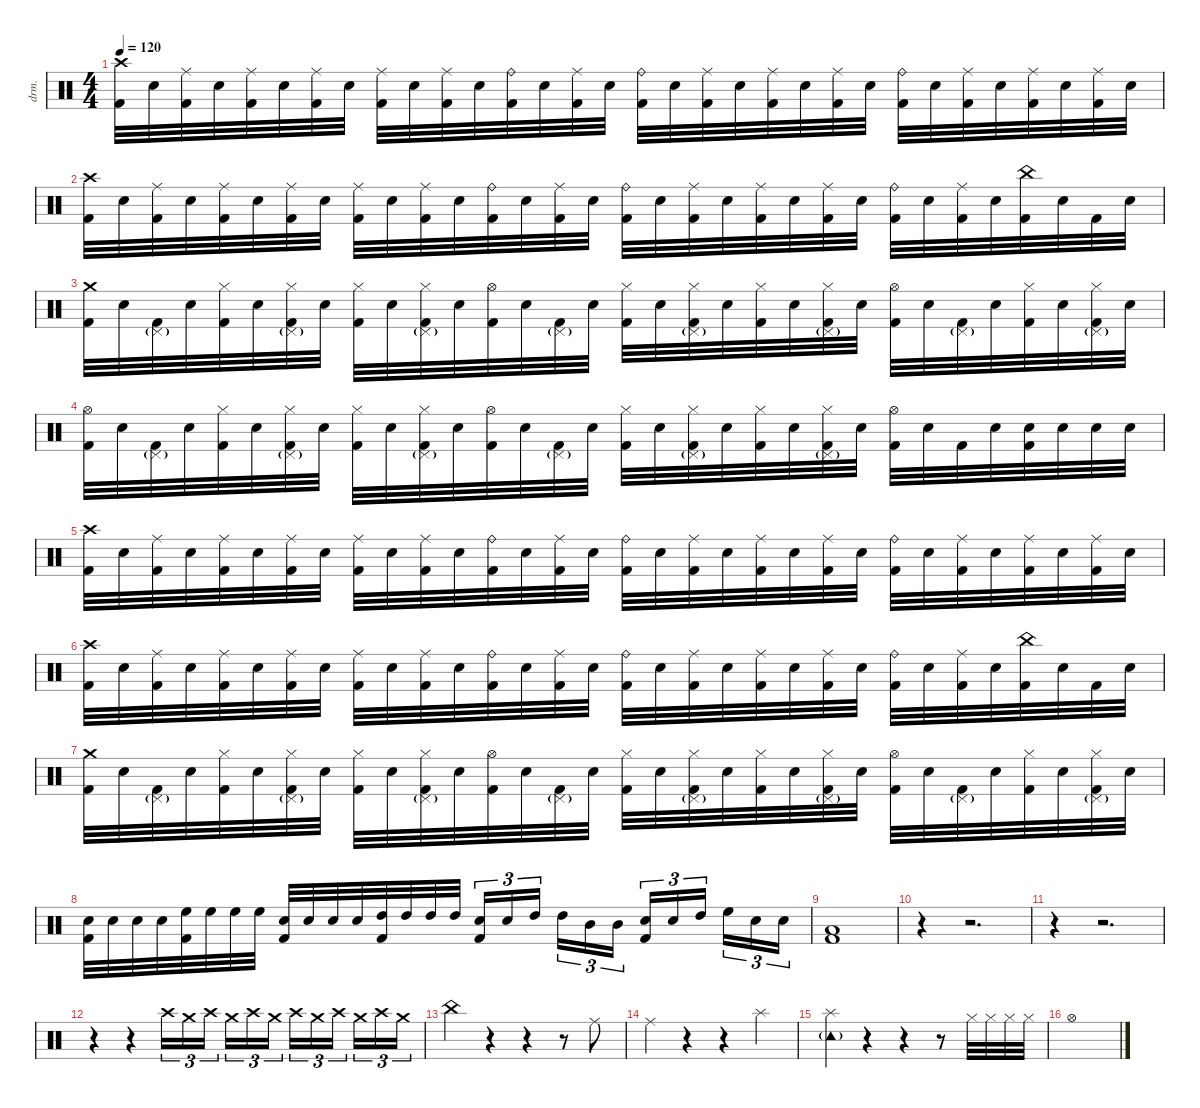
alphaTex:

\defaultSystemsLayout 4
\hideDynamics
\bracketExtendMode nobrackets
\otherSystemsTrackNameOrientation horizontal
\track ("Percussion" "drm.") {instrument percussion}
\staff {score}
\articulation defaults
\ts (4 4)
\tempo 120
\clef neutral
\ks c
("Kick (hit) 2" "Crash high (hit)").32{dy fff beam Down} "Snare (hit) 2".32{beam Down} ("Kick (hit) 2" "Ride (middle)").32{beam Down} "Snare (hit) 2".32{beam Down} ("Kick (hit) 2" "Ride (middle)").32{beam Down} "Snare (hit) 2".32{beam Down} ("Kick (hit) 2" "Ride (middle)").32{beam Down} "Snare (hit) 2".32{beam Down} ("Kick (hit) 2" "Ride (middle)").32{beam Down} "Snare (hit) 2".32{beam Down} ("Kick (hit) 2" "Ride (middle)").32{beam Down} "Snare (hit) 2".32{beam Down} ("Kick (hit) 2" "Ride (bell)").32{beam Down} "Snare (hit) 2".32{beam Down} ("Kick (hit) 2" "Ride (middle)").32{beam Down} "Snare (hit) 2".32{beam Down} ("Kick (hit) 2" "Ride (bell)").32{beam Down} "Snare (hit) 2".32{beam Down} ("Kick (hit) 2" "Ride (middle)").32{beam Down} "Snare (hit) 2".32{beam Down} ("Kick (hit) 2" "Ride (middle)").32{beam Down} "Snare (hit) 2".32{beam Down} ("Kick (hit) 2" "Ride (middle)").32{beam Down} "Snare (hit) 2".32{beam Down} ("Kick (hit) 2" "Ride (bell)").32{beam Down} "Snare (hit) 2".32{beam Down} ("Kick (hit) 2" "Ride (middle)").32{beam Down} "Snare (hit) 2".32{beam Down} ("Kick (hit) 2" "Ride (middle)").32{beam Down} "Snare (hit) 2".32{beam Down} ("Kick (hit) 2" "Ride (middle)").32{beam Down} "Snare (hit) 2".32{beam Down} |
("Kick (hit) 2" "Crash high (hit)").32{beam Down} "Snare (hit) 2".32{beam Down} ("Kick (hit) 2" "Ride (middle)").32{beam Down} "Snare (hit) 2".32{beam Down} ("Kick (hit) 2" "Ride (middle)").32{beam Down} "Snare (hit) 2".32{beam Down} ("Kick (hit) 2" "Ride (middle)").32{beam Down} "Snare (hit) 2".32{beam Down} ("Kick (hit) 2" "Ride (middle)").32{beam Down} "Snare (hit) 2".32{beam Down} ("Kick (hit) 2" "Ride (middle)").32{beam Down} "Snare (hit) 2".32{beam Down} ("Kick (hit) 2" "Ride (bell)").32{beam Down} "Snare (hit) 2".32{beam Down} ("Kick (hit) 2" "Ride (middle)").32{beam Down} "Snare (hit) 2".32{beam Down} ("Kick (hit) 2" "Ride (bell)").32{beam Down} "Snare (hit) 2".32{beam Down} ("Kick (hit) 2" "Ride (middle)").32{beam Down} "Snare (hit) 2".32{beam Down} ("Kick (hit) 2" "Ride (middle)").32{beam Down} "Snare (hit) 2".32{beam Down} ("Kick (hit) 2" "Ride (middle)").32{beam Down} "Snare (hit) 2".32{beam Down} ("Kick (hit) 2" "Ride (bell)").32{beam Down} "Snare (hit) 2".32{beam Down} ("Kick (hit) 2" "Ride (middle)").32{beam Down} "Snare (hit) 2".32{beam Down} ("Kick (hit) 2" "China (hit)").32{beam Down} "Snare (hit) 2".32{beam Down} "Kick (hit) 2".32{beam Down} "Snare (hit) 2".32{beam Down} |
("Kick (hit) 2" "Crash medium (hit)").32{beam Down} "Snare (hit) 2".32{beam Down} ("Kick (hit) 2" "Pedal Hi-Hat (hit)"{g}).32{beam Down} "Snare (hit) 2".32{beam Down} ("Kick (hit) 2" "Hi-Hat (closed)").32{beam Down} "Snare (hit) 2".32{beam Down} ("Kick (hit) 2" "Pedal Hi-Hat (hit)"{g} "Hi-Hat (closed)").32{beam Down} "Snare (hit) 2".32{beam Down} ("Kick (hit) 2" "Hi-Hat (closed)").32{beam Down} "Snare (hit) 2".32{beam Down} ("Kick (hit) 2" "Pedal Hi-Hat (hit)"{g} "Hi-Hat (closed)").32{beam Down} "Snare (hit) 2".32{beam Down} ("Kick (hit) 2" "Hi-Hat (open)").32{beam Down} "Snare (hit) 2".32{beam Down} ("Kick (hit) 2" "Pedal Hi-Hat (hit)"{g}).32{beam Down} "Snare (hit) 2".32{beam Down} ("Kick (hit) 2" "Hi-Hat (closed)").32{beam Down} "Snare (hit) 2".32{beam Down} ("Kick (hit) 2" "Pedal Hi-Hat (hit)"{g} "Hi-Hat (closed)").32{beam Down} "Snare (hit) 2".32{beam Down} ("Kick (hit) 2" "Hi-Hat (closed)").32{beam Down} "Snare (hit) 2".32{beam Down} ("Kick (hit) 2" "Pedal Hi-Hat (hit)"{g} "Hi-Hat (closed)").32{beam Down} "Snare (hit) 2".32{beam Down} ("Kick (hit) 2" "Hi-Hat (open)").32{beam Down} "Snare (hit) 2".32{beam Down} ("Kick (hit) 2" "Pedal Hi-Hat (hit)"{g}).32{beam Down} "Snare (hit) 2".32{beam Down} ("Kick (hit) 2" "Hi-Hat (closed)").32{beam Down} "Snare (hit) 2".32{beam Down} ("Kick (hit) 2" "Pedal Hi-Hat (hit)"{g} "Hi-Hat (closed)").32{beam Down} "Snare (hit) 2".32{beam Down} |
("Kick (hit) 2" "Hi-Hat (open)").32{beam Down} "Snare (hit) 2".32{beam Down} ("Kick (hit) 2" "Pedal Hi-Hat (hit)"{g}).32{beam Down} "Snare (hit) 2".32{beam Down} ("Kick (hit) 2" "Hi-Hat (closed)").32{beam Down} "Snare (hit) 2".32{beam Down} ("Kick (hit) 2" "Pedal Hi-Hat (hit)"{g} "Hi-Hat (closed)").32{beam Down} "Snare (hit) 2".32{beam Down} ("Kick (hit) 2" "Hi-Hat (closed)").32{beam Down} "Snare (hit) 2".32{beam Down} ("Kick (hit) 2" "Pedal Hi-Hat (hit)"{g} "Hi-Hat (closed)").32{beam Down} "Snare (hit) 2".32{beam Down} ("Kick (hit) 2" "Hi-Hat (open)").32{beam Down} "Snare (hit) 2".32{beam Down} ("Kick (hit) 2" "Pedal Hi-Hat (hit)"{g}).32{beam Down} "Snare (hit) 2".32{beam Down} ("Kick (hit) 2" "Hi-Hat (closed)").32{beam Down} "Snare (hit) 2".32{beam Down} ("Kick (hit) 2" "Pedal Hi-Hat (hit)"{g} "Hi-Hat (closed)").32{beam Down} "Snare (hit) 2".32{beam Down} ("Kick (hit) 2" "Hi-Hat (closed)").32{beam Down} "Snare (hit) 2".32{beam Down} ("Kick (hit) 2" "Pedal Hi-Hat (hit)"{g} "Hi-Hat (closed)").32{beam Down} "Snare (hit) 2".32{beam Down} ("Kick (hit) 2" "Hi-Hat (open)").32{beam Down} "Snare (hit) 2".32{beam Down} "Kick (hit) 2".32{beam Down} "Snare (hit) 2".32{beam Down} ("Kick (hit) 2" "Snare (hit) 2").32{beam Down} "Snare (hit) 2".32{beam Down} "Snare (hit) 2".32{beam Down} "Snare (hit) 2".32{beam Down} |
("Kick (hit) 2" "Crash high (hit)").32{beam Down} "Snare (hit) 2".32{beam Down} ("Kick (hit) 2" "Ride (middle)").32{beam Down} "Snare (hit) 2".32{beam Down} ("Kick (hit) 2" "Ride (middle)").32{beam Down} "Snare (hit) 2".32{beam Down} ("Kick (hit) 2" "Ride (middle)").32{beam Down} "Snare (hit) 2".32{beam Down} ("Kick (hit) 2" "Ride (middle)").32{beam Down} "Snare (hit) 2".32{beam Down} ("Kick (hit) 2" "Ride (middle)").32{beam Down} "Snare (hit) 2".32{beam Down} ("Kick (hit) 2" "Ride (bell)").32{beam Down} "Snare (hit) 2".32{beam Down} ("Kick (hit) 2" "Ride (middle)").32{beam Down} "Snare (hit) 2".32{beam Down} ("Kick (hit) 2" "Ride (bell)").32{beam Down} "Snare (hit) 2".32{beam Down} ("Kick (hit) 2" "Ride (middle)").32{beam Down} "Snare (hit) 2".32{beam Down} ("Kick (hit) 2" "Ride (middle)").32{beam Down} "Snare (hit) 2".32{beam Down} ("Kick (hit) 2" "Ride (middle)").32{beam Down} "Snare (hit) 2".32{beam Down} ("Kick (hit) 2" "Ride (bell)").32{beam Down} "Snare (hit) 2".32{beam Down} ("Kick (hit) 2" "Ride (middle)").32{beam Down} "Snare (hit) 2".32{beam Down} ("Kick (hit) 2" "Ride (middle)").32{beam Down} "Snare (hit) 2".32{beam Down} ("Kick (hit) 2" "Ride (middle)").32{beam Down} "Snare (hit) 2".32{beam Down} |
("Kick (hit) 2" "Crash high (hit)").32{beam Down} "Snare (hit) 2".32{beam Down} ("Kick (hit) 2" "Ride (middle)").32{beam Down} "Snare (hit) 2".32{beam Down} ("Kick (hit) 2" "Ride (middle)").32{beam Down} "Snare (hit) 2".32{beam Down} ("Kick (hit) 2" "Ride (middle)").32{beam Down} "Snare (hit) 2".32{beam Down} ("Kick (hit) 2" "Ride (middle)").32{beam Down} "Snare (hit) 2".32{beam Down} ("Kick (hit) 2" "Ride (middle)").32{beam Down} "Snare (hit) 2".32{beam Down} ("Kick (hit) 2" "Ride (bell)").32{beam Down} "Snare (hit) 2".32{beam Down} ("Kick (hit) 2" "Ride (middle)").32{beam Down} "Snare (hit) 2".32{beam Down} ("Kick (hit) 2" "Ride (bell)").32{beam Down} "Snare (hit) 2".32{beam Down} ("Kick (hit) 2" "Ride (middle)").32{beam Down} "Snare (hit) 2".32{beam Down} ("Kick (hit) 2" "Ride (middle)").32{beam Down} "Snare (hit) 2".32{beam Down} ("Kick (hit) 2" "Ride (middle)").32{beam Down} "Snare (hit) 2".32{beam Down} ("Kick (hit) 2" "Ride (bell)").32{beam Down} "Snare (hit) 2".32{beam Down} ("Kick (hit) 2" "Ride (middle)").32{beam Down} "Snare (hit) 2".32{beam Down} ("Kick (hit) 2" "China (hit)").32{beam Down} "Snare (hit) 2".32{beam Down} "Kick (hit) 2".32{beam Down} "Snare (hit) 2".32{beam Down} |
("Kick (hit) 2" "Crash medium (hit)").32{beam Down} "Snare (hit) 2".32{beam Down} ("Kick (hit) 2" "Pedal Hi-Hat (hit)"{g}).32{beam Down} "Snare (hit) 2".32{beam Down} ("Kick (hit) 2" "Hi-Hat (closed)").32{beam Down} "Snare (hit) 2".32{beam Down} ("Kick (hit) 2" "Pedal Hi-Hat (hit)"{g} "Hi-Hat (closed)").32{beam Down} "Snare (hit) 2".32{beam Down} ("Kick (hit) 2" "Hi-Hat (closed)").32{beam Down} "Snare (hit) 2".32{beam Down} ("Kick (hit) 2" "Pedal Hi-Hat (hit)"{g} "Hi-Hat (closed)").32{beam Down} "Snare (hit) 2".32{beam Down} ("Kick (hit) 2" "Hi-Hat (open)").32{beam Down} "Snare (hit) 2".32{beam Down} ("Kick (hit) 2" "Pedal Hi-Hat (hit)"{g}).32{beam Down} "Snare (hit) 2".32{beam Down} ("Kick (hit) 2" "Hi-Hat (closed)").32{beam Down} "Snare (hit) 2".32{beam Down} ("Kick (hit) 2" "Pedal Hi-Hat (hit)"{g} "Hi-Hat (closed)").32{beam Down} "Snare (hit) 2".32{beam Down} ("Kick (hit) 2" "Hi-Hat (closed)").32{beam Down} "Snare (hit) 2".32{beam Down} ("Kick (hit) 2" "Pedal Hi-Hat (hit)"{g} "Hi-Hat (closed)").32{beam Down} "Snare (hit) 2".32{beam Down} ("Kick (hit) 2" "Hi-Hat (open)").32{beam Down} "Snare (hit) 2".32{beam Down} ("Kick (hit) 2" "Pedal Hi-Hat (hit)"{g}).32{beam Down} "Snare (hit) 2".32{beam Down} ("Kick (hit) 2" "Hi-Hat (closed)").32{beam Down} "Snare (hit) 2".32{beam Down} ("Kick (hit) 2" "Pedal Hi-Hat (hit)"{g} "Hi-Hat (closed)").32{beam Down} "Snare (hit) 2".32{beam Down} |
("Kick (hit) 2" "Snare (hit) 2").32{beam Down} "Snare (hit) 2".32{beam Down} "Snare (hit) 2".32{beam Down} "Snare (hit) 2".32{beam Down} ("Kick (hit) 2" "High Floor Tom (hit)").32{beam Down} "High Floor Tom (hit)".32{beam Down} "High Floor Tom (hit)".32{beam Down} "High Floor Tom (hit)".32{beam Down} ("Kick (hit) 2" "Snare (hit) 2").32{beam Up} "Snare (hit) 2".32{beam Up} "Snare (hit) 2".32{beam Up} "Snare (hit) 2".32{beam Up} ("Kick (hit) 2" "High Tom (hit)").32{beam Up} "High Tom (hit)".32{beam Up} "High Tom (hit)".32{beam Up} "High Tom (hit)".32{beam Up} ("Kick (hit) 2" "Snare (hit) 2").16{tu (3 2) beam Up} "Snare (hit) 2".16{tu (3 2) beam Up} "High Tom (hit)".16{tu (3 2) beam Up} "High Tom (hit)".16{tu (3 2) beam Down} "Mid Tom (hit)".16{tu (3 2) beam Down} "Mid Tom (hit)".16{tu (3 2) beam Down} ("Kick (hit) 2" "Snare (hit) 2").16{tu (3 2) beam Up} "Snare (hit) 2".16{tu (3 2) beam Up} "High Tom (hit)".16{tu (3 2) beam Up} "High Floor Tom (hit)".16{tu (3 2) beam Down} "Snare (hit) 2".16{tu (3 2) beam Down} "Snare (hit) 2".16{tu (3 2) beam Down} |
("Kick (hit) 2" "Low Floor Tom (hit)").1{beam Up} |
r.4{beam Down} r.2{d beam Down} |
r.4{beam Down} r.2{d beam Down} |
r.4{beam Down} r.4{beam Down} "Crash high (hit)".16{tu (3 2) dy pp beam Down} "Crash medium (hit)".16{tu (3 2) beam Down} "Crash high (hit)".16{tu (3 2) beam Down} "Crash medium (hit)".16{tu (3 2) beam Down} "Crash high (hit)".16{tu (3 2) dy p beam Down} "Crash medium (hit)".16{tu (3 2) beam Down} "Crash high (hit)".16{tu (3 2) beam Down} "Crash medium (hit)".16{tu (3 2) beam Down} "Crash high (hit)".16{tu (3 2) dy mp beam Down} "Crash medium (hit)".16{tu (3 2) beam Down} "Crash high (hit)".16{tu (3 2) dy mf beam Down} "Crash medium (hit)".16{tu (3 2) dy f beam Down} |
"China (hit)".4{dy fff beam Down} r.4{beam Down} r.4{beam Down} r.8{beam Down} "Ride (middle)".8{beam Down} |
"Ride (middle)".4{beam Down} r.4{beam Down} r.4{beam Down} "Splash (hit)".4{beam Down} |
("Tambourine (hit)"{g} "Splash (hit)").4{beam Down} r.4{beam Down} r.4{beam Down} r.8{beam Down} "Hi-Hat (closed)".32{dy f beam Down} "Hi-Hat (closed)".32{beam Down} "Hi-Hat (closed)".32{beam Down} "Hi-Hat (closed)".32{beam Down} |
"Hi-Hat (open)".1{dy fff beam Down}
